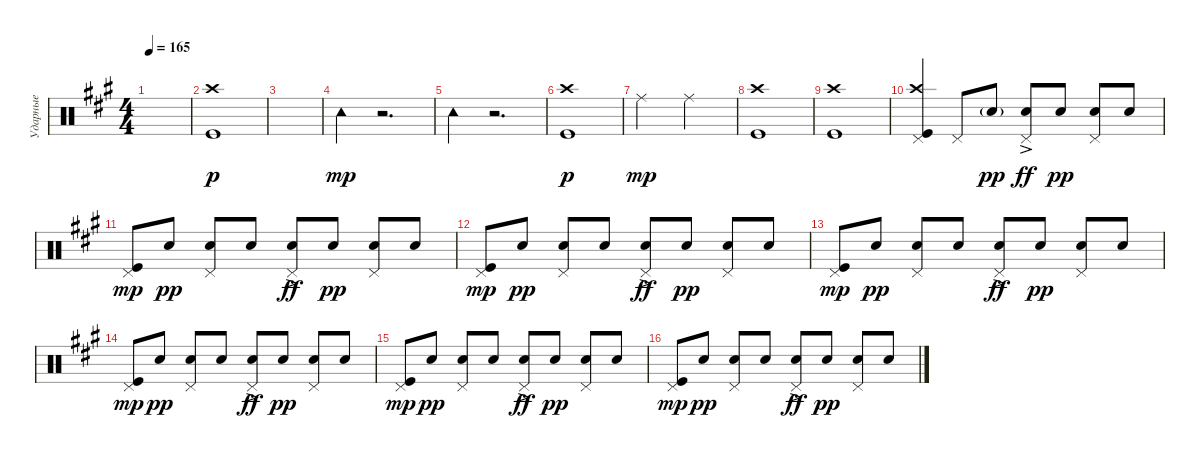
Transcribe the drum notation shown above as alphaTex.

\track ("Ударные" "Ударные") {instrument percussion}
\staff {score}
\articulation defaults
\ts (4 4)
\tempo 165
\clef neutral
\ks f#minor
|
("Kick (hit)" "Crash high (hit)").1{dy p} |
|
"Tambourine (hit)".4{dy mp} r.2{d} |
"Tambourine (hit)".4 r.2{d} |
("Kick (hit)" "Crash high (hit)").1{dy p} |
"Ride (middle)".2{dy mp} "Ride (middle)".2 |
("Kick (hit)" "Crash high (hit)").1 |
("Kick (hit)" "Crash high (hit)").1 |
("Kick (hit)" "Crash high (hit)" "Pedal Hi-Hat (hit)").4 "Pedal Hi-Hat (hit)".8 "Snare (hit) 2"{g}.8{dy pp} ("Pedal Hi-Hat (hit)" "Snare (hit) 2"{ac}).8{dy ff} "Snare (hit) 2".8{dy pp} ("Pedal Hi-Hat (hit)" "Snare (hit) 2").8 "Snare (hit) 2".8 |
("Pedal Hi-Hat (hit)" "Kick (hit)").8{dy mp} "Snare (hit) 2".8{dy pp} ("Pedal Hi-Hat (hit)" "Snare (hit) 2").8 "Snare (hit) 2".8 ("Pedal Hi-Hat (hit)" "Snare (hit) 2"{ac}).8{dy ff} "Snare (hit) 2".8{dy pp} ("Pedal Hi-Hat (hit)" "Snare (hit) 2").8 "Snare (hit) 2".8 |
("Pedal Hi-Hat (hit)" "Kick (hit)").8{dy mp} "Snare (hit) 2".8{dy pp} ("Pedal Hi-Hat (hit)" "Snare (hit) 2").8 "Snare (hit) 2".8 ("Pedal Hi-Hat (hit)" "Snare (hit) 2"{ac}).8{dy ff} "Snare (hit) 2".8{dy pp} ("Pedal Hi-Hat (hit)" "Snare (hit) 2").8 "Snare (hit) 2".8 |
("Pedal Hi-Hat (hit)" "Kick (hit)").8{dy mp} "Snare (hit) 2".8{dy pp} ("Pedal Hi-Hat (hit)" "Snare (hit) 2").8 "Snare (hit) 2".8 ("Pedal Hi-Hat (hit)" "Snare (hit) 2"{ac}).8{dy ff} "Snare (hit) 2".8{dy pp} ("Pedal Hi-Hat (hit)" "Snare (hit) 2").8 "Snare (hit) 2".8 |
("Pedal Hi-Hat (hit)" "Kick (hit)").8{dy mp} "Snare (hit) 2".8{dy pp} ("Pedal Hi-Hat (hit)" "Snare (hit) 2").8 "Snare (hit) 2".8 ("Pedal Hi-Hat (hit)" "Snare (hit) 2"{ac}).8{dy ff} "Snare (hit) 2".8{dy pp} ("Pedal Hi-Hat (hit)" "Snare (hit) 2").8 "Snare (hit) 2".8 |
("Pedal Hi-Hat (hit)" "Kick (hit)").8{dy mp} "Snare (hit) 2".8{dy pp} ("Pedal Hi-Hat (hit)" "Snare (hit) 2").8 "Snare (hit) 2".8 ("Pedal Hi-Hat (hit)" "Snare (hit) 2"{ac}).8{dy ff} "Snare (hit) 2".8{dy pp} ("Pedal Hi-Hat (hit)" "Snare (hit) 2").8 "Snare (hit) 2".8 |
("Pedal Hi-Hat (hit)" "Kick (hit)").8{dy mp} "Snare (hit) 2".8{dy pp} ("Pedal Hi-Hat (hit)" "Snare (hit) 2").8 "Snare (hit) 2".8 ("Pedal Hi-Hat (hit)" "Snare (hit) 2"{ac}).8{dy ff} "Snare (hit) 2".8{dy pp} ("Pedal Hi-Hat (hit)" "Snare (hit) 2").8 "Snare (hit) 2".8
